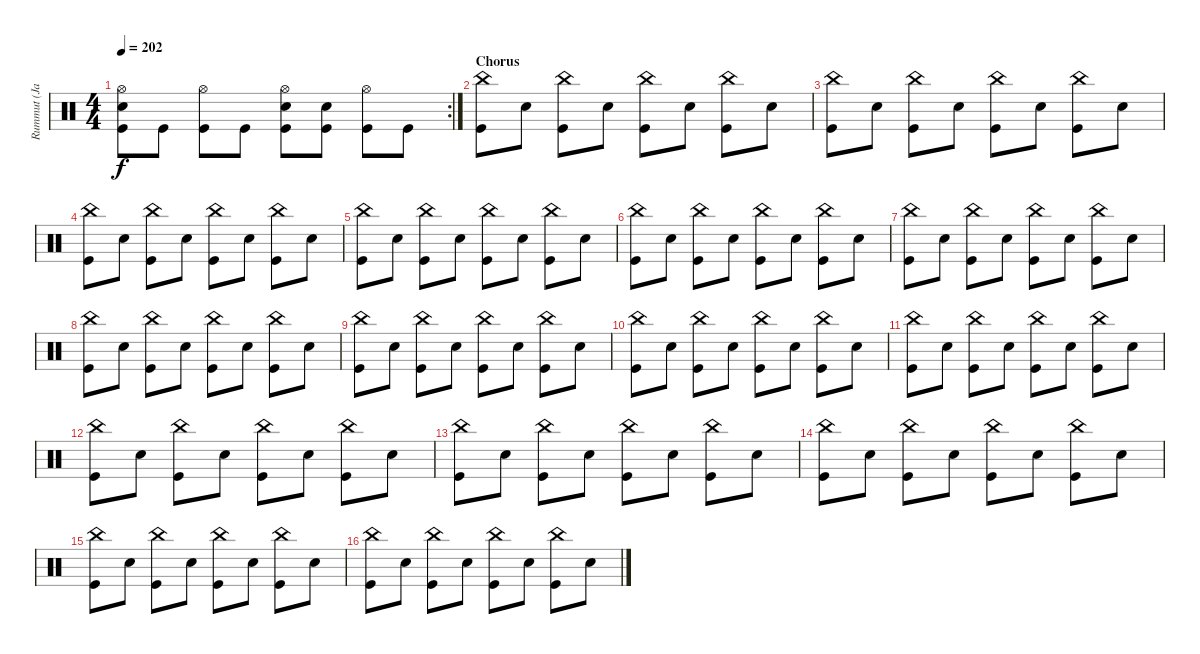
\track ("Rummut (Janne)" "Rummut (Ja") {instrument percussion}
\staff {score}
\articulation defaults
\rc 2
\ts (4 4)
\tempo 202
\clef neutral
\ks c
("Hi-Hat (open)" "Snare (hit) 2" "Kick (hit)").8{dy f} "Kick (hit)".8 ("Hi-Hat (open)" "Kick (hit)").8 "Kick (hit)".8 ("Hi-Hat (open)" "Snare (hit) 2" "Kick (hit)").8 ("Snare (hit) 2" "Kick (hit)").8 ("Hi-Hat (open)" "Kick (hit)").8 "Kick (hit)".8 |
\section ("" "Chorus")
("China (hit)" "Kick (hit)").8 "Snare (hit) 2".8 ("China (hit)" "Kick (hit)").8 "Snare (hit) 2".8 ("China (hit)" "Kick (hit)").8 "Snare (hit) 2".8 ("China (hit)" "Kick (hit)").8 "Snare (hit) 2".8 |
("China (hit)" "Kick (hit)").8 "Snare (hit) 2".8 ("China (hit)" "Kick (hit)").8 "Snare (hit) 2".8 ("China (hit)" "Kick (hit)").8 "Snare (hit) 2".8 ("China (hit)" "Kick (hit)").8 "Snare (hit) 2".8 |
("China (hit)" "Kick (hit)").8 "Snare (hit) 2".8 ("China (hit)" "Kick (hit)").8 "Snare (hit) 2".8 ("China (hit)" "Kick (hit)").8 "Snare (hit) 2".8 ("China (hit)" "Kick (hit)").8 "Snare (hit) 2".8 |
("China (hit)" "Kick (hit)").8 "Snare (hit) 2".8 ("China (hit)" "Kick (hit)").8 "Snare (hit) 2".8 ("China (hit)" "Kick (hit)").8 "Snare (hit) 2".8 ("China (hit)" "Kick (hit)").8 "Snare (hit) 2".8 |
("China (hit)" "Kick (hit)").8 "Snare (hit) 2".8 ("China (hit)" "Kick (hit)").8 "Snare (hit) 2".8 ("China (hit)" "Kick (hit)").8 "Snare (hit) 2".8 ("China (hit)" "Kick (hit)").8 "Snare (hit) 2".8 |
("China (hit)" "Kick (hit)").8 "Snare (hit) 2".8 ("China (hit)" "Kick (hit)").8 "Snare (hit) 2".8 ("China (hit)" "Kick (hit)").8 "Snare (hit) 2".8 ("China (hit)" "Kick (hit)").8 "Snare (hit) 2".8 |
("China (hit)" "Kick (hit)").8 "Snare (hit) 2".8 ("China (hit)" "Kick (hit)").8 "Snare (hit) 2".8 ("China (hit)" "Kick (hit)").8 "Snare (hit) 2".8 ("China (hit)" "Kick (hit)").8 "Snare (hit) 2".8 |
("China (hit)" "Kick (hit)").8 "Snare (hit) 2".8 ("China (hit)" "Kick (hit)").8 "Snare (hit) 2".8 ("China (hit)" "Kick (hit)").8 "Snare (hit) 2".8 ("China (hit)" "Kick (hit)").8 "Snare (hit) 2".8 |
("China (hit)" "Kick (hit)").8 "Snare (hit) 2".8 ("China (hit)" "Kick (hit)").8 "Snare (hit) 2".8 ("China (hit)" "Kick (hit)").8 "Snare (hit) 2".8 ("China (hit)" "Kick (hit)").8 "Snare (hit) 2".8 |
("China (hit)" "Kick (hit)").8 "Snare (hit) 2".8 ("China (hit)" "Kick (hit)").8 "Snare (hit) 2".8 ("China (hit)" "Kick (hit)").8 "Snare (hit) 2".8 ("China (hit)" "Kick (hit)").8 "Snare (hit) 2".8 |
("China (hit)" "Kick (hit)").8 "Snare (hit) 2".8 ("China (hit)" "Kick (hit)").8 "Snare (hit) 2".8 ("China (hit)" "Kick (hit)").8 "Snare (hit) 2".8 ("China (hit)" "Kick (hit)").8 "Snare (hit) 2".8 |
("China (hit)" "Kick (hit)").8 "Snare (hit) 2".8 ("China (hit)" "Kick (hit)").8 "Snare (hit) 2".8 ("China (hit)" "Kick (hit)").8 "Snare (hit) 2".8 ("China (hit)" "Kick (hit)").8 "Snare (hit) 2".8 |
("China (hit)" "Kick (hit)").8 "Snare (hit) 2".8 ("China (hit)" "Kick (hit)").8 "Snare (hit) 2".8 ("China (hit)" "Kick (hit)").8 "Snare (hit) 2".8 ("China (hit)" "Kick (hit)").8 "Snare (hit) 2".8 |
("China (hit)" "Kick (hit)").8 "Snare (hit) 2".8 ("China (hit)" "Kick (hit)").8 "Snare (hit) 2".8 ("China (hit)" "Kick (hit)").8 "Snare (hit) 2".8 ("China (hit)" "Kick (hit)").8 "Snare (hit) 2".8 |
("China (hit)" "Kick (hit)").8 "Snare (hit) 2".8 ("China (hit)" "Kick (hit)").8 "Snare (hit) 2".8 ("China (hit)" "Kick (hit)").8 "Snare (hit) 2".8 ("China (hit)" "Kick (hit)").8 "Snare (hit) 2".8
